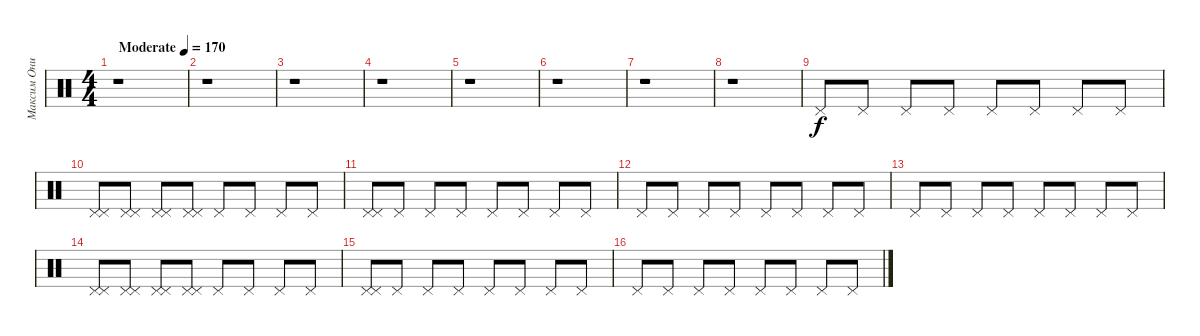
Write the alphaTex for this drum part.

\track ("Максим Онищенко" "Максим Они") {instrument percussion}
\staff {score}
\articulation defaults
\ts (4 4)
\tempo (170 "Moderate")
\clef neutral
\ks c
r.1{dy f} |
r.1 |
r.1 |
r.1 |
r.1 |
r.1 |
r.1 |
r.1 |
"Pedal Hi-Hat (hit)".8 "Pedal Hi-Hat (hit)".8 "Pedal Hi-Hat (hit)".8 "Pedal Hi-Hat (hit)".8 "Pedal Hi-Hat (hit)".8 "Pedal Hi-Hat (hit)".8 "Pedal Hi-Hat (hit)".8 "Pedal Hi-Hat (hit)".8 |
("Pedal Hi-Hat (hit)" "Pedal Hi-Hat (hit)").8 ("Pedal Hi-Hat (hit)" "Pedal Hi-Hat (hit)").8 ("Pedal Hi-Hat (hit)" "Pedal Hi-Hat (hit)").8 ("Pedal Hi-Hat (hit)" "Pedal Hi-Hat (hit)").8 "Pedal Hi-Hat (hit)".8 "Pedal Hi-Hat (hit)".8 "Pedal Hi-Hat (hit)".8 "Pedal Hi-Hat (hit)".8 |
("Pedal Hi-Hat (hit)" "Pedal Hi-Hat (hit)").8 "Pedal Hi-Hat (hit)".8 "Pedal Hi-Hat (hit)".8 "Pedal Hi-Hat (hit)".8 "Pedal Hi-Hat (hit)".8 "Pedal Hi-Hat (hit)".8 "Pedal Hi-Hat (hit)".8 "Pedal Hi-Hat (hit)".8 |
"Pedal Hi-Hat (hit)".8 "Pedal Hi-Hat (hit)".8 "Pedal Hi-Hat (hit)".8 "Pedal Hi-Hat (hit)".8 "Pedal Hi-Hat (hit)".8 "Pedal Hi-Hat (hit)".8 "Pedal Hi-Hat (hit)".8 "Pedal Hi-Hat (hit)".8 |
"Pedal Hi-Hat (hit)".8 "Pedal Hi-Hat (hit)".8 "Pedal Hi-Hat (hit)".8 "Pedal Hi-Hat (hit)".8 "Pedal Hi-Hat (hit)".8 "Pedal Hi-Hat (hit)".8 "Pedal Hi-Hat (hit)".8 "Pedal Hi-Hat (hit)".8 |
("Pedal Hi-Hat (hit)" "Pedal Hi-Hat (hit)").8 ("Pedal Hi-Hat (hit)" "Pedal Hi-Hat (hit)").8 ("Pedal Hi-Hat (hit)" "Pedal Hi-Hat (hit)").8 ("Pedal Hi-Hat (hit)" "Pedal Hi-Hat (hit)").8 "Pedal Hi-Hat (hit)".8 "Pedal Hi-Hat (hit)".8 "Pedal Hi-Hat (hit)".8 "Pedal Hi-Hat (hit)".8 |
("Pedal Hi-Hat (hit)" "Pedal Hi-Hat (hit)").8 "Pedal Hi-Hat (hit)".8 "Pedal Hi-Hat (hit)".8 "Pedal Hi-Hat (hit)".8 "Pedal Hi-Hat (hit)".8 "Pedal Hi-Hat (hit)".8 "Pedal Hi-Hat (hit)".8 "Pedal Hi-Hat (hit)".8 |
"Pedal Hi-Hat (hit)".8 "Pedal Hi-Hat (hit)".8 "Pedal Hi-Hat (hit)".8 "Pedal Hi-Hat (hit)".8 "Pedal Hi-Hat (hit)".8 "Pedal Hi-Hat (hit)".8 "Pedal Hi-Hat (hit)".8 "Pedal Hi-Hat (hit)".8
